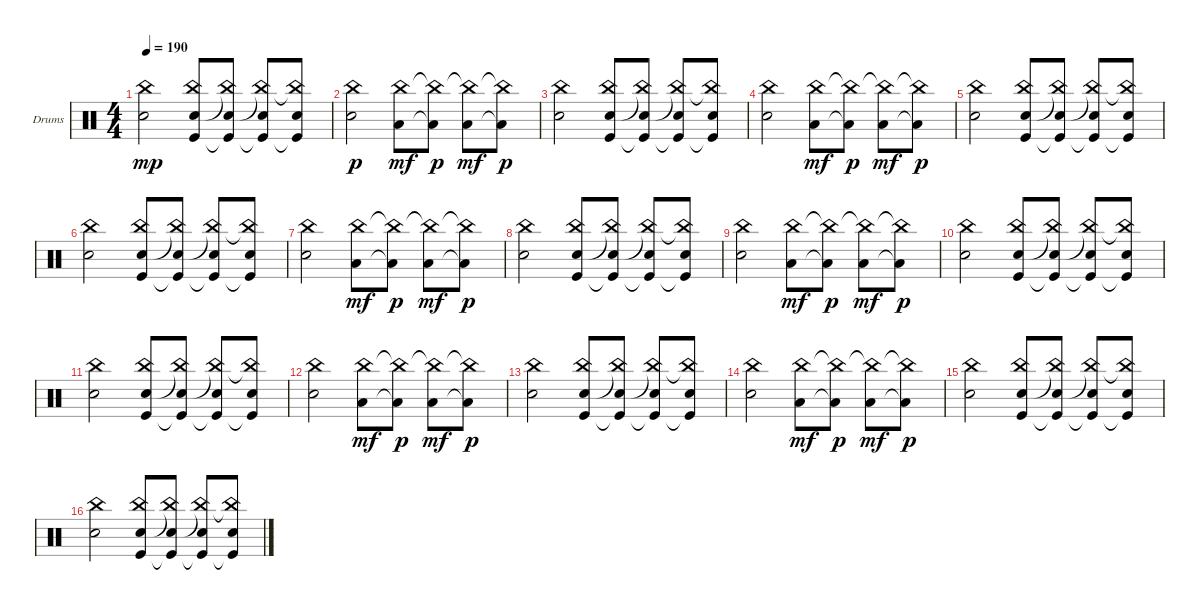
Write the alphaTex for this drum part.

\defaultSystemsLayout 4
\bracketExtendMode groupsimilarinstruments
\firstSystemTrackNameOrientation horizontal
\otherSystemsTrackNameOrientation horizontal
\track ("Drumkit" "Drums") {instrument percussion}
\staff {score}
\articulation defaults
\ts (4 4)
\tempo 190
\clef neutral
\ks c
("Snare (hit) 2" "China (hit)").2{dy mp} ("Snare (hit) 2" "China (hit)" "Kick (hit)").8 ("China (hit)"{t} "Snare (hit) 2" "Kick (hit)"{t}).8 ("Snare (hit) 2" "China (hit)"{t} "Kick (hit)"{t}).8 ("Snare (hit) 2" "China (hit)"{t} "Kick (hit)"{t}).8 |
("Snare (hit) 2" "China (hit)").2{dy p} ("China (hit)" "Low Tom (hit)").8{dy mf} ("China (hit)"{t} "Low Tom (hit)"{t}).8{dy p} ("China (hit)"{t} "Low Tom (hit)").8{dy mf} ("China (hit)"{t} "Low Tom (hit)"{t}).8{dy p} |
("Snare (hit) 2" "China (hit)").2 ("Snare (hit) 2" "China (hit)" "Kick (hit)").8 ("China (hit)"{t} "Snare (hit) 2" "Kick (hit)"{t}).8 ("Snare (hit) 2" "China (hit)"{t} "Kick (hit)"{t}).8 ("Snare (hit) 2" "China (hit)"{t} "Kick (hit)"{t}).8 |
("Snare (hit) 2" "China (hit)").2 ("China (hit)" "Low Tom (hit)").8{dy mf} ("China (hit)"{t} "Low Tom (hit)"{t}).8{dy p} ("China (hit)"{t} "Low Tom (hit)").8{dy mf} ("China (hit)"{t} "Low Tom (hit)"{t}).8{dy p} |
("Snare (hit) 2" "China (hit)").2 ("Snare (hit) 2" "China (hit)" "Kick (hit)").8 ("China (hit)"{t} "Snare (hit) 2" "Kick (hit)"{t}).8 ("Snare (hit) 2" "China (hit)"{t} "Kick (hit)"{t}).8 ("Snare (hit) 2" "China (hit)"{t} "Kick (hit)"{t}).8 |
("Snare (hit) 2" "China (hit)").2 ("Snare (hit) 2" "China (hit)" "Kick (hit)").8 ("China (hit)"{t} "Snare (hit) 2" "Kick (hit)"{t}).8 ("Snare (hit) 2" "China (hit)"{t} "Kick (hit)"{t}).8 ("Snare (hit) 2" "China (hit)"{t} "Kick (hit)"{t}).8 |
("Snare (hit) 2" "China (hit)").2 ("China (hit)" "Low Tom (hit)").8{dy mf} ("China (hit)"{t} "Low Tom (hit)"{t}).8{dy p} ("China (hit)"{t} "Low Tom (hit)").8{dy mf} ("China (hit)"{t} "Low Tom (hit)"{t}).8{dy p} |
("Snare (hit) 2" "China (hit)").2 ("Snare (hit) 2" "China (hit)" "Kick (hit)").8 ("China (hit)"{t} "Snare (hit) 2" "Kick (hit)"{t}).8 ("Snare (hit) 2" "China (hit)"{t} "Kick (hit)"{t}).8 ("Snare (hit) 2" "China (hit)"{t} "Kick (hit)"{t}).8 |
("Snare (hit) 2" "China (hit)").2 ("China (hit)" "Low Tom (hit)").8{dy mf} ("China (hit)"{t} "Low Tom (hit)"{t}).8{dy p} ("China (hit)"{t} "Low Tom (hit)").8{dy mf} ("China (hit)"{t} "Low Tom (hit)"{t}).8{dy p} |
("Snare (hit) 2" "China (hit)").2 ("Snare (hit) 2" "China (hit)" "Kick (hit)").8 ("China (hit)"{t} "Snare (hit) 2" "Kick (hit)"{t}).8 ("Snare (hit) 2" "China (hit)"{t} "Kick (hit)"{t}).8 ("Snare (hit) 2" "China (hit)"{t} "Kick (hit)"{t}).8 |
("Snare (hit) 2" "China (hit)").2 ("Snare (hit) 2" "China (hit)" "Kick (hit)").8 ("China (hit)"{t} "Snare (hit) 2" "Kick (hit)"{t}).8 ("Snare (hit) 2" "China (hit)"{t} "Kick (hit)"{t}).8 ("Snare (hit) 2" "China (hit)"{t} "Kick (hit)"{t}).8 |
("Snare (hit) 2" "China (hit)").2 ("China (hit)" "Low Tom (hit)").8{dy mf} ("China (hit)"{t} "Low Tom (hit)"{t}).8{dy p} ("China (hit)"{t} "Low Tom (hit)").8{dy mf} ("China (hit)"{t} "Low Tom (hit)"{t}).8{dy p} |
("Snare (hit) 2" "China (hit)").2 ("Snare (hit) 2" "China (hit)" "Kick (hit)").8 ("China (hit)"{t} "Snare (hit) 2" "Kick (hit)"{t}).8 ("Snare (hit) 2" "China (hit)"{t} "Kick (hit)"{t}).8 ("Snare (hit) 2" "China (hit)"{t} "Kick (hit)"{t}).8 |
("Snare (hit) 2" "China (hit)").2 ("China (hit)" "Low Tom (hit)").8{dy mf} ("China (hit)"{t} "Low Tom (hit)"{t}).8{dy p} ("China (hit)"{t} "Low Tom (hit)").8{dy mf} ("China (hit)"{t} "Low Tom (hit)"{t}).8{dy p} |
("Snare (hit) 2" "China (hit)").2 ("Snare (hit) 2" "China (hit)" "Kick (hit)").8 ("China (hit)"{t} "Snare (hit) 2" "Kick (hit)"{t}).8 ("Snare (hit) 2" "China (hit)"{t} "Kick (hit)"{t}).8 ("Snare (hit) 2" "China (hit)"{t} "Kick (hit)"{t}).8 |
("Snare (hit) 2" "China (hit)").2 ("Snare (hit) 2" "China (hit)" "Kick (hit)").8 ("China (hit)"{t} "Snare (hit) 2" "Kick (hit)"{t}).8 ("Snare (hit) 2" "China (hit)"{t} "Kick (hit)"{t}).8 ("Snare (hit) 2" "China (hit)"{t} "Kick (hit)"{t}).8
